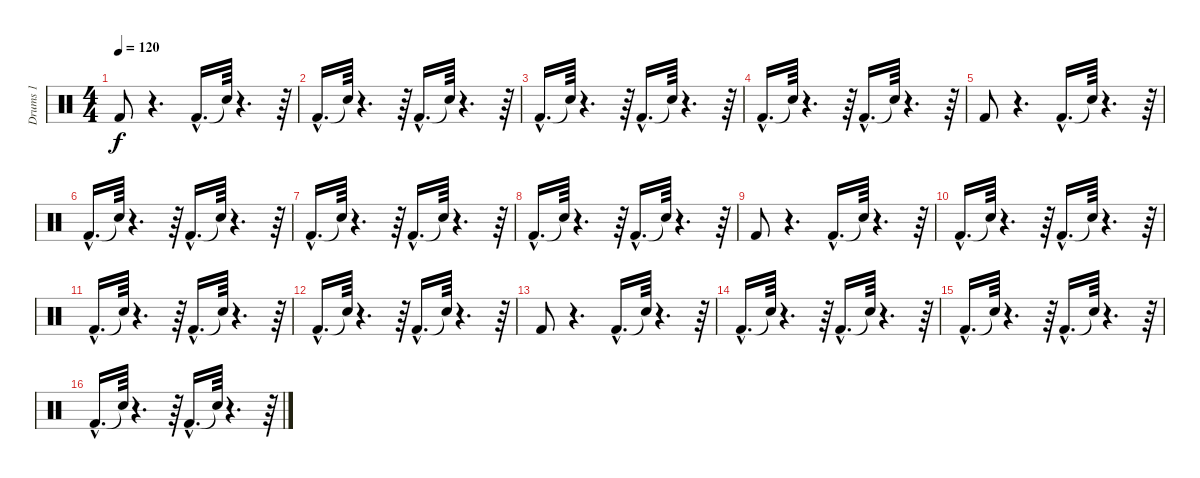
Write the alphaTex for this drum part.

\track ("Drums 1" "Drums 1") {instrument percussion}
\staff {score}
\articulation defaults
\ts (4 4)
\tempo 120
\clef neutral
\ks c "Kick (hit) 2".8{dy f}
r.4{d} "Kick (hit) 2"{hac}.16{d} "Snare (hit)"{t}.64 r.4{d} r.64 |
"Kick (hit) 2"{hac}.16{d} "Snare (hit)"{t}.64 r.4{d} r.64 "Kick (hit) 2"{hac}.16{d} "Snare (hit)"{t}.64 r.4{d} r.64 |
"Kick (hit) 2"{hac}.16{d} "Snare (hit)"{t}.64 r.4{d} r.64 "Kick (hit) 2"{hac}.16{d} "Snare (hit)"{t}.64 r.4{d} r.64 |
"Kick (hit) 2"{hac}.16{d} "Snare (hit)"{t}.64 r.4{d} r.64 "Kick (hit) 2"{hac}.16{d} "Snare (hit)"{t}.64 r.4{d} r.64 |
"Kick (hit) 2".8 r.4{d} "Kick (hit) 2"{hac}.16{d} "Snare (hit)"{t}.64 r.4{d} r.64 |
"Kick (hit) 2"{hac}.16{d} "Snare (hit)"{t}.64 r.4{d} r.64 "Kick (hit) 2"{hac}.16{d} "Snare (hit)"{t}.64 r.4{d} r.64 |
"Kick (hit) 2"{hac}.16{d} "Snare (hit)"{t}.64 r.4{d} r.64 "Kick (hit) 2"{hac}.16{d} "Snare (hit)"{t}.64 r.4{d} r.64 |
"Kick (hit) 2"{hac}.16{d} "Snare (hit)"{t}.64 r.4{d} r.64 "Kick (hit) 2"{hac}.16{d} "Snare (hit)"{t}.64 r.4{d} r.64 |
"Kick (hit) 2".8 r.4{d} "Kick (hit) 2"{hac}.16{d} "Snare (hit)"{t}.64 r.4{d} r.64 |
"Kick (hit) 2"{hac}.16{d} "Snare (hit)"{t}.64 r.4{d} r.64 "Kick (hit) 2"{hac}.16{d} "Snare (hit)"{t}.64 r.4{d} r.64 |
"Kick (hit) 2"{hac}.16{d} "Snare (hit)"{t}.64 r.4{d} r.64 "Kick (hit) 2"{hac}.16{d} "Snare (hit)"{t}.64 r.4{d} r.64 |
"Kick (hit) 2"{hac}.16{d} "Snare (hit)"{t}.64 r.4{d} r.64 "Kick (hit) 2"{hac}.16{d} "Snare (hit)"{t}.64 r.4{d} r.64 |
"Kick (hit) 2".8 r.4{d} "Kick (hit) 2"{hac}.16{d} "Snare (hit)"{t}.64 r.4{d} r.64 |
"Kick (hit) 2"{hac}.16{d} "Snare (hit)"{t}.64 r.4{d} r.64 "Kick (hit) 2"{hac}.16{d} "Snare (hit)"{t}.64 r.4{d} r.64 |
"Kick (hit) 2"{hac}.16{d} "Snare (hit)"{t}.64 r.4{d} r.64 "Kick (hit) 2"{hac}.16{d} "Snare (hit)"{t}.64 r.4{d} r.64 |
"Kick (hit) 2"{hac}.16{d} "Snare (hit)"{t}.64 r.4{d} r.64 "Kick (hit) 2"{hac}.16{d} "Snare (hit)"{t}.64 r.4{d} r.64
